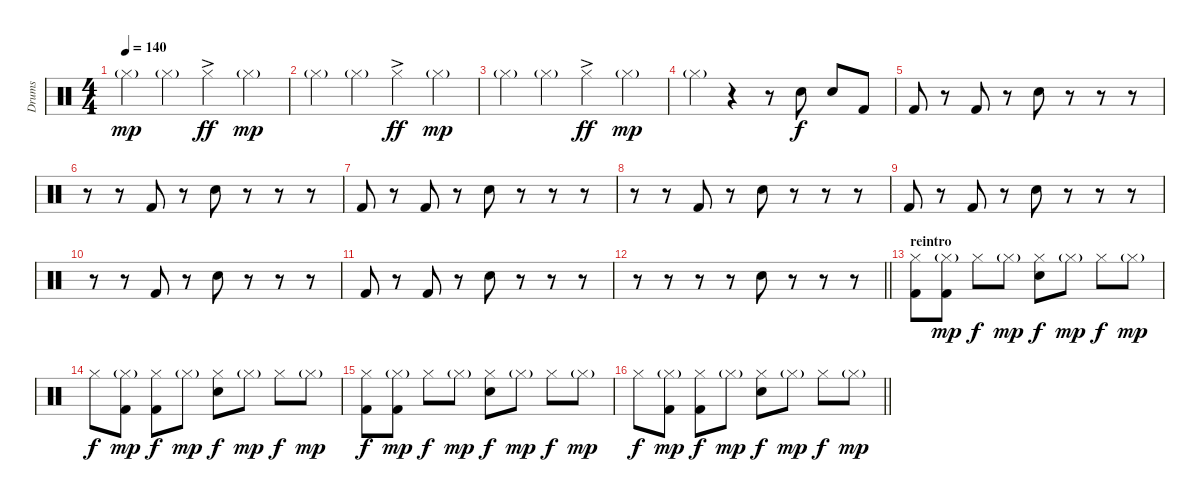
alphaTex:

\track ("Drums" "Drums") {instrument percussion}
\staff {score}
\articulation defaults
\ts (4 4)
\tempo 140
\clef neutral
\ks c "Hi-Hat (closed)"{g}.4{dy mp} "Hi-Hat (closed)"{g}.4 "Hi-Hat (closed)"{ac}.4{dy ff} "Hi-Hat (closed)"{g}.4{dy mp}
|
"Hi-Hat (closed)"{g}.4 "Hi-Hat (closed)"{g}.4 "Hi-Hat (closed)"{ac}.4{dy ff} "Hi-Hat (closed)"{g}.4{dy mp} |
"Hi-Hat (closed)"{g}.4 "Hi-Hat (closed)"{g}.4 "Hi-Hat (closed)"{ac}.4{dy ff} "Hi-Hat (closed)"{g}.4{dy mp} |
"Hi-Hat (closed)"{g}.4 r.4 r.8 "Electric Snare (hit)".8{dy f} "Electric Snare (hit)".8 "Kick (hit) 2".8 |
"Kick (hit) 2".8 r.8 "Kick (hit) 2".8 r.8 "Electric Snare (hit)".8 r.8 r.8 r.8 |
r.8 r.8 "Kick (hit) 2".8 r.8 "Electric Snare (hit)".8 r.8 r.8 r.8 |
"Kick (hit) 2".8 r.8 "Kick (hit) 2".8 r.8 "Electric Snare (hit)".8 r.8 r.8 r.8 |
r.8 r.8 "Kick (hit) 2".8 r.8 "Electric Snare (hit)".8 r.8 r.8 r.8 |
"Kick (hit) 2".8 r.8 "Kick (hit) 2".8 r.8 "Electric Snare (hit)".8 r.8 r.8 r.8 |
r.8 r.8 "Kick (hit) 2".8 r.8 "Electric Snare (hit)".8 r.8 r.8 r.8 |
"Kick (hit) 2".8 r.8 "Kick (hit) 2".8 r.8 "Electric Snare (hit)".8 r.8 r.8 r.8 |
\barLineRight lightlight
r.8 r.8 r.8 r.8 "Electric Snare (hit)".8 r.8 r.8 r.8 |
\section ("" "reintro")
("Hi-Hat (closed)" "Kick (hit) 2").8 ("Hi-Hat (closed)"{g} "Kick (hit) 2").8{dy mp} "Hi-Hat (closed)".8{dy f} "Hi-Hat (closed)"{g}.8{dy mp} ("Hi-Hat (closed)" "Electric Snare (hit)").8{dy f} "Hi-Hat (closed)"{g}.8{dy mp} "Hi-Hat (closed)".8{dy f} "Hi-Hat (closed)"{g}.8{dy mp} |
"Hi-Hat (closed)".8{dy f} ("Hi-Hat (closed)"{g} "Kick (hit) 2").8{dy mp} ("Hi-Hat (closed)" "Kick (hit) 2").8{dy f} "Hi-Hat (closed)"{g}.8{dy mp} ("Hi-Hat (closed)" "Electric Snare (hit)").8{dy f} "Hi-Hat (closed)"{g}.8{dy mp} "Hi-Hat (closed)".8{dy f} "Hi-Hat (closed)"{g}.8{dy mp} |
("Hi-Hat (closed)" "Kick (hit) 2").8{dy f} ("Hi-Hat (closed)"{g} "Kick (hit) 2").8{dy mp} "Hi-Hat (closed)".8{dy f} "Hi-Hat (closed)"{g}.8{dy mp} ("Hi-Hat (closed)" "Electric Snare (hit)").8{dy f} "Hi-Hat (closed)"{g}.8{dy mp} "Hi-Hat (closed)".8{dy f} "Hi-Hat (closed)"{g}.8{dy mp} |
\barLineRight lightlight "Hi-Hat (closed)".8{dy f}
("Hi-Hat (closed)"{g} "Kick (hit) 2").8{dy mp} ("Hi-Hat (closed)" "Kick (hit) 2").8{dy f} "Hi-Hat (closed)"{g}.8{dy mp} ("Hi-Hat (closed)" "Electric Snare (hit)").8{dy f} "Hi-Hat (closed)"{g}.8{dy mp} "Hi-Hat (closed)".8{dy f} "Hi-Hat (closed)"{g}.8{dy mp}
